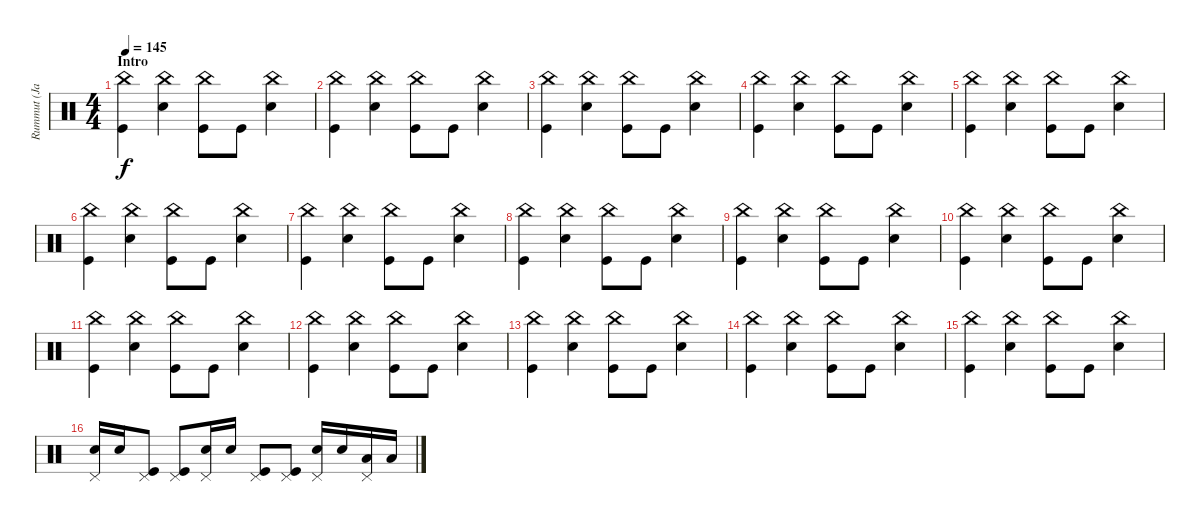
\track ("Rummut (Janne)" "Rummut (Ja") {instrument percussion}
\staff {score}
\articulation defaults
\ts (4 4)
\section ("" "Intro")
\tempo 145
\clef neutral
\ks c
("China (hit)" "Kick (hit)").4{dy f} ("China (hit)" "Snare (hit) 2").4 ("China (hit)" "Kick (hit)").8 "Kick (hit)".8 ("China (hit)" "Snare (hit) 2").4 |
("China (hit)" "Kick (hit)").4 ("China (hit)" "Snare (hit) 2").4 ("China (hit)" "Kick (hit)").8 "Kick (hit)".8 ("China (hit)" "Snare (hit) 2").4 |
("China (hit)" "Kick (hit)").4 ("China (hit)" "Snare (hit) 2").4 ("China (hit)" "Kick (hit)").8 "Kick (hit)".8 ("China (hit)" "Snare (hit) 2").4 |
("China (hit)" "Kick (hit)").4 ("China (hit)" "Snare (hit) 2").4 ("China (hit)" "Kick (hit)").8 "Kick (hit)".8 ("China (hit)" "Snare (hit) 2").4 |
("China (hit)" "Kick (hit)").4 ("China (hit)" "Snare (hit) 2").4 ("China (hit)" "Kick (hit)").8 "Kick (hit)".8 ("China (hit)" "Snare (hit) 2").4 |
("China (hit)" "Kick (hit)").4 ("China (hit)" "Snare (hit) 2").4 ("China (hit)" "Kick (hit)").8 "Kick (hit)".8 ("China (hit)" "Snare (hit) 2").4 |
("China (hit)" "Kick (hit)").4 ("China (hit)" "Snare (hit) 2").4 ("China (hit)" "Kick (hit)").8 "Kick (hit)".8 ("China (hit)" "Snare (hit) 2").4 |
("China (hit)" "Kick (hit)").4 ("China (hit)" "Snare (hit) 2").4 ("China (hit)" "Kick (hit)").8 "Kick (hit)".8 ("China (hit)" "Snare (hit) 2").4 |
("China (hit)" "Kick (hit)").4 ("China (hit)" "Snare (hit) 2").4 ("China (hit)" "Kick (hit)").8 "Kick (hit)".8 ("China (hit)" "Snare (hit) 2").4 |
("China (hit)" "Kick (hit)").4 ("China (hit)" "Snare (hit) 2").4 ("China (hit)" "Kick (hit)").8 "Kick (hit)".8 ("China (hit)" "Snare (hit) 2").4 |
("China (hit)" "Kick (hit)").4 ("China (hit)" "Snare (hit) 2").4 ("China (hit)" "Kick (hit)").8 "Kick (hit)".8 ("China (hit)" "Snare (hit) 2").4 |
("China (hit)" "Kick (hit)").4 ("China (hit)" "Snare (hit) 2").4 ("China (hit)" "Kick (hit)").8 "Kick (hit)".8 ("China (hit)" "Snare (hit) 2").4 |
("China (hit)" "Kick (hit)").4 ("China (hit)" "Snare (hit) 2").4 ("China (hit)" "Kick (hit)").8 "Kick (hit)".8 ("China (hit)" "Snare (hit) 2").4 |
("China (hit)" "Kick (hit)").4 ("China (hit)" "Snare (hit) 2").4 ("China (hit)" "Kick (hit)").8 "Kick (hit)".8 ("China (hit)" "Snare (hit) 2").4 |
("China (hit)" "Kick (hit)").4 ("China (hit)" "Snare (hit) 2").4 ("China (hit)" "Kick (hit)").8 "Kick (hit)".8 ("China (hit)" "Snare (hit) 2").4 |
("Pedal Hi-Hat (hit)" "Snare (hit) 2").16 "Snare (hit) 2".16 ("Pedal Hi-Hat (hit)" "Kick (hit)").8 ("Pedal Hi-Hat (hit)" "Kick (hit)").8 ("Pedal Hi-Hat (hit)" "Snare (hit) 2").16 "Snare (hit) 2".16 ("Pedal Hi-Hat (hit)" "Kick (hit)").8 ("Pedal Hi-Hat (hit)" "Kick (hit)").8 ("Pedal Hi-Hat (hit)" "Snare (hit) 2").16 "Snare (hit) 2".16 ("Pedal Hi-Hat (hit)" "Low Tom (hit)").16 "Low Tom (hit)".16
